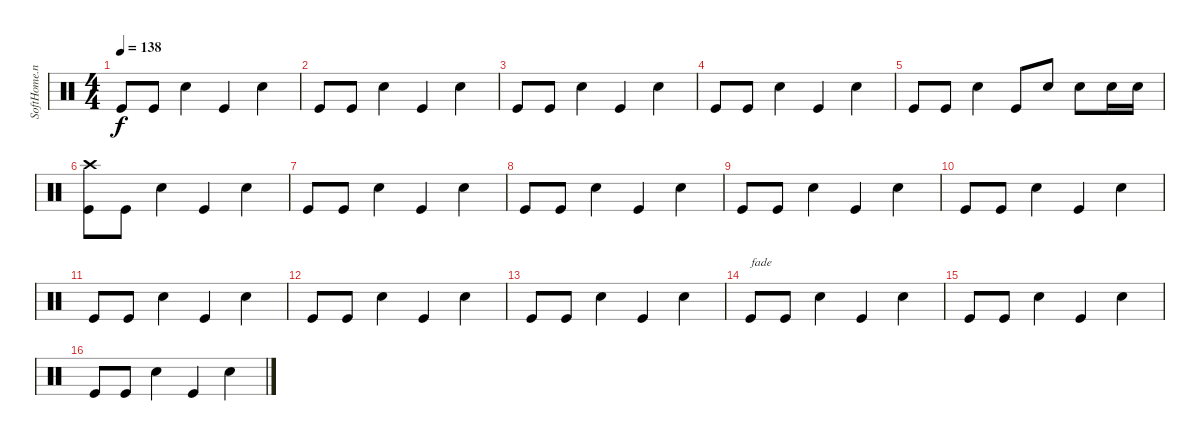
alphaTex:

\track ("SoftHome.net" "SoftHome.n") {instrument percussion}
\staff {score}
\articulation defaults
\ts (4 4)
\tempo 138
\clef neutral
\ks c "Kick (hit)".8{dy f} "Kick (hit)".8 "Snare (hit) 2".4 "Kick (hit)".4 "Snare (hit) 2".4
|
"Kick (hit)".8 "Kick (hit)".8 "Snare (hit) 2".4 "Kick (hit)".4 "Snare (hit) 2".4 |
"Kick (hit)".8 "Kick (hit)".8 "Snare (hit) 2".4 "Kick (hit)".4 "Snare (hit) 2".4 |
"Kick (hit)".8 "Kick (hit)".8 "Snare (hit) 2".4 "Kick (hit)".4 "Snare (hit) 2".4 |
"Kick (hit)".8 "Kick (hit)".8 "Snare (hit) 2".4 "Kick (hit)".8 "Snare (hit) 2".8 "Snare (hit) 2".8 "Snare (hit) 2".16 "Snare (hit) 2".16 |
("Crash high (hit)" "Kick (hit)").8 "Kick (hit)".8 "Snare (hit) 2".4 "Kick (hit)".4 "Snare (hit) 2".4 |
"Kick (hit)".8 "Kick (hit)".8 "Snare (hit) 2".4 "Kick (hit)".4 "Snare (hit) 2".4 |
"Kick (hit)".8 "Kick (hit)".8 "Snare (hit) 2".4 "Kick (hit)".4 "Snare (hit) 2".4 |
"Kick (hit)".8 "Kick (hit)".8 "Snare (hit) 2".4 "Kick (hit)".4 "Snare (hit) 2".4 |
"Kick (hit)".8 "Kick (hit)".8 "Snare (hit) 2".4 "Kick (hit)".4 "Snare (hit) 2".4 |
"Kick (hit)".8 "Kick (hit)".8 "Snare (hit) 2".4 "Kick (hit)".4 "Snare (hit) 2".4 |
"Kick (hit)".8 "Kick (hit)".8 "Snare (hit) 2".4 "Kick (hit)".4 "Snare (hit) 2".4 |
"Kick (hit)".8 "Kick (hit)".8 "Snare (hit) 2".4 "Kick (hit)".4 "Snare (hit) 2".4 |
"Kick (hit)".8{txt "fade " volume 10} "Kick (hit)".8 "Snare (hit) 2".4 "Kick (hit)".4 "Snare (hit) 2".4 |
"Kick (hit)".8{volume 8} "Kick (hit)".8 "Snare (hit) 2".4 "Kick (hit)".4 "Snare (hit) 2".4 |
"Kick (hit)".8{volume 6} "Kick (hit)".8 "Snare (hit) 2".4 "Kick (hit)".4 "Snare (hit) 2".4
